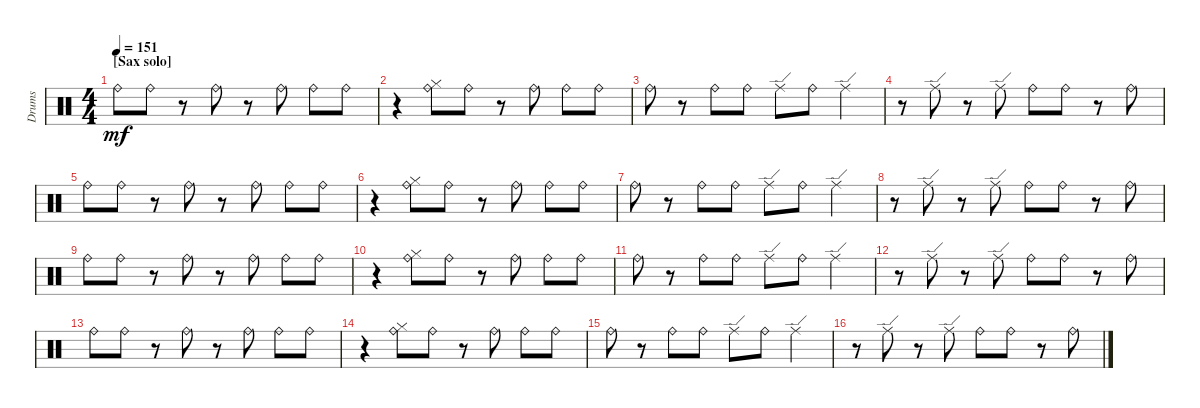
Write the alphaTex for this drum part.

\bracketExtendMode groupsimilarinstruments
\track ("Drumkit" "Drums") {instrument percussion}
\staff {score}
\articulation defaults
\ts (4 4)
\section ("" "[Sax solo]")
\tempo 151
\clef neutral
\ks aminor "Ride (bell)".8{dy mf} "Ride (bell)".8
r.8 "Ride (bell)".8 r.8 "Ride (bell)".8 "Ride (bell)".8 "Ride (bell)".8 |
r.4 ("Ride (bell)" "Hi-Hat (closed)").8 "Ride (bell)".8 r.8 "Ride (bell)".8 "Ride (bell)".8 "Ride (bell)".8 |
"Ride (bell)".8 r.8 "Ride (bell)".8 "Ride (bell)".8 "Ride (edge)".8 "Ride (bell)".8 "Ride (edge)".4 |
r.8 "Ride (edge)".8 r.8 "Ride (edge)".8 "Ride (bell)".8 "Ride (bell)".8 r.8 "Ride (bell)".8 |
"Ride (bell)".8 "Ride (bell)".8 r.8 "Ride (bell)".8 r.8 "Ride (bell)".8 "Ride (bell)".8 "Ride (bell)".8 |
r.4 ("Ride (bell)" "Hi-Hat (closed)").8 "Ride (bell)".8 r.8 "Ride (bell)".8 "Ride (bell)".8 "Ride (bell)".8 |
"Ride (bell)".8 r.8 "Ride (bell)".8 "Ride (bell)".8 "Ride (edge)".8 "Ride (bell)".8 "Ride (edge)".4 |
r.8 "Ride (edge)".8 r.8 "Ride (edge)".8 "Ride (bell)".8 "Ride (bell)".8 r.8 "Ride (bell)".8 |
"Ride (bell)".8 "Ride (bell)".8 r.8 "Ride (bell)".8 r.8 "Ride (bell)".8 "Ride (bell)".8 "Ride (bell)".8 |
r.4 ("Ride (bell)" "Hi-Hat (closed)").8 "Ride (bell)".8 r.8 "Ride (bell)".8 "Ride (bell)".8 "Ride (bell)".8 |
"Ride (bell)".8 r.8 "Ride (bell)".8 "Ride (bell)".8 "Ride (edge)".8 "Ride (bell)".8 "Ride (edge)".4 |
r.8 "Ride (edge)".8 r.8 "Ride (edge)".8 "Ride (bell)".8 "Ride (bell)".8 r.8 "Ride (bell)".8 |
"Ride (bell)".8 "Ride (bell)".8 r.8 "Ride (bell)".8 r.8 "Ride (bell)".8 "Ride (bell)".8 "Ride (bell)".8 |
r.4 ("Ride (bell)" "Hi-Hat (closed)").8 "Ride (bell)".8 r.8 "Ride (bell)".8 "Ride (bell)".8 "Ride (bell)".8 |
"Ride (bell)".8 r.8 "Ride (bell)".8 "Ride (bell)".8 "Ride (edge)".8 "Ride (bell)".8 "Ride (edge)".4 |
r.8 "Ride (edge)".8 r.8 "Ride (edge)".8 "Ride (bell)".8 "Ride (bell)".8 r.8 "Ride (bell)".8
